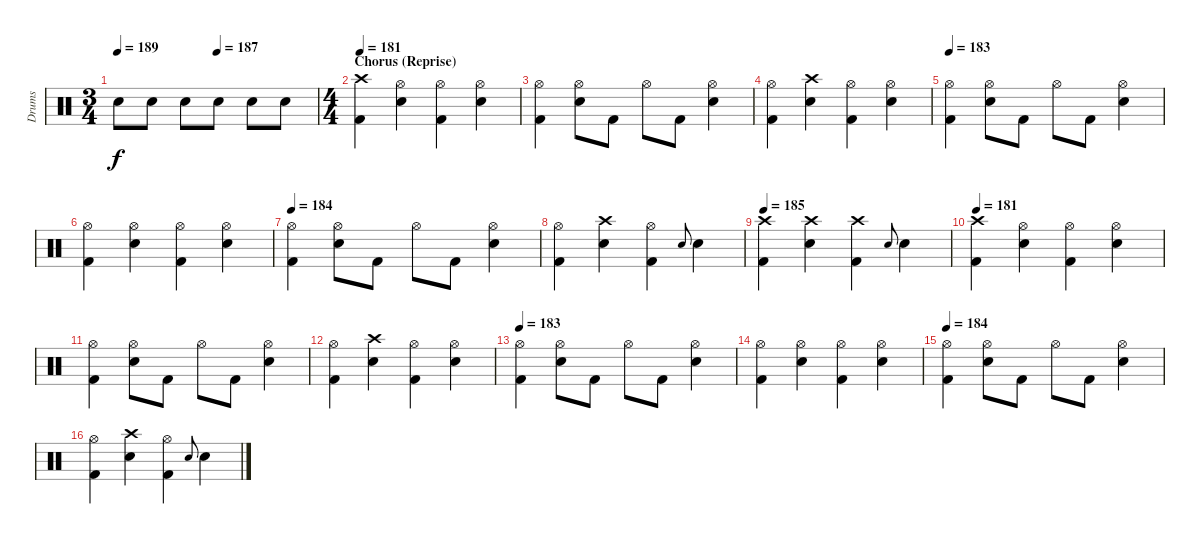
\track ("Drums" "Drums") {instrument percussion}
\staff {score}
\articulation defaults
\ts (3 4)
\tempo 189
\tempo (187 0.5)
\clef neutral
\ks c "Snare (hit) 2".8{dy f} "Snare (hit) 2".8 "Snare (hit) 2".8 "Snare (hit) 2".8 "Snare (hit) 2".8 "Snare (hit) 2".8
|
\ts (4 4)
\section ("" "Chorus (Reprise)")
\tempo 181
("Crash high (hit)" "Kick (hit) 2").4 ("Snare (hit) 2" "Hi-Hat (open)").4 ("Hi-Hat (open)" "Kick (hit) 2").4 ("Hi-Hat (open)" "Snare (hit) 2").4 |
("Hi-Hat (open)" "Kick (hit) 2").4 ("Hi-Hat (open)" "Snare (hit) 2").8 "Kick (hit) 2".8 "Hi-Hat (open)".8 "Kick (hit) 2".8 ("Snare (hit) 2" "Hi-Hat (open)").4 |
("Kick (hit) 2" "Hi-Hat (open)").4 ("Snare (hit) 2" "Crash high (hit)").4 ("Hi-Hat (open)" "Kick (hit) 2").4 ("Hi-Hat (open)" "Snare (hit) 2").4 |
\tempo 183
("Hi-Hat (open)" "Kick (hit) 2").4 ("Hi-Hat (open)" "Snare (hit) 2").8 "Kick (hit) 2".8 "Hi-Hat (open)".8 "Kick (hit) 2".8 ("Snare (hit) 2" "Hi-Hat (open)").4 |
("Kick (hit) 2" "Hi-Hat (open)").4 ("Snare (hit) 2" "Hi-Hat (open)").4 ("Hi-Hat (open)" "Kick (hit) 2").4 ("Hi-Hat (open)" "Snare (hit) 2").4 |
\tempo 184
("Hi-Hat (open)" "Kick (hit) 2").4 ("Hi-Hat (open)" "Snare (hit) 2").8 "Kick (hit) 2".8 "Hi-Hat (open)".8 "Kick (hit) 2".8 ("Snare (hit) 2" "Hi-Hat (open)").4 |
("Kick (hit) 2" "Hi-Hat (open)").4 ("Snare (hit) 2" "Crash high (hit)").4 ("Hi-Hat (open)" "Kick (hit) 2").4 "Snare (hit)".8{gr onbeat} "Snare (hit) 2".4 |
\tempo 185
("Kick (hit) 2" "Crash high (hit)").4 ("Snare (hit) 2" "Crash high (hit)").4 ("Kick (hit) 2" "Crash high (hit)").4 "Snare (hit)".8{gr onbeat} "Snare (hit) 2".4 |
\tempo 181
("Crash high (hit)" "Kick (hit) 2").4 ("Snare (hit) 2" "Hi-Hat (open)").4 ("Hi-Hat (open)" "Kick (hit) 2").4 ("Hi-Hat (open)" "Snare (hit) 2").4 |
("Hi-Hat (open)" "Kick (hit) 2").4 ("Hi-Hat (open)" "Snare (hit) 2").8 "Kick (hit) 2".8 "Hi-Hat (open)".8 "Kick (hit) 2".8 ("Snare (hit) 2" "Hi-Hat (open)").4 |
("Kick (hit) 2" "Hi-Hat (open)").4 ("Snare (hit) 2" "Crash high (hit)").4 ("Hi-Hat (open)" "Kick (hit) 2").4 ("Hi-Hat (open)" "Snare (hit) 2").4 |
\tempo 183
("Hi-Hat (open)" "Kick (hit) 2").4 ("Hi-Hat (open)" "Snare (hit) 2").8 "Kick (hit) 2".8 "Hi-Hat (open)".8 "Kick (hit) 2".8 ("Snare (hit) 2" "Hi-Hat (open)").4 |
("Kick (hit) 2" "Hi-Hat (open)").4 ("Snare (hit) 2" "Hi-Hat (open)").4 ("Hi-Hat (open)" "Kick (hit) 2").4 ("Hi-Hat (open)" "Snare (hit) 2").4 |
\tempo 184
("Hi-Hat (open)" "Kick (hit) 2").4 ("Hi-Hat (open)" "Snare (hit) 2").8 "Kick (hit) 2".8 "Hi-Hat (open)".8 "Kick (hit) 2".8 ("Snare (hit) 2" "Hi-Hat (open)").4 |
("Kick (hit) 2" "Hi-Hat (open)").4 ("Snare (hit) 2" "Crash high (hit)").4 ("Hi-Hat (open)" "Kick (hit) 2").4 "Snare (hit)".8{gr onbeat} "Snare (hit) 2".4
